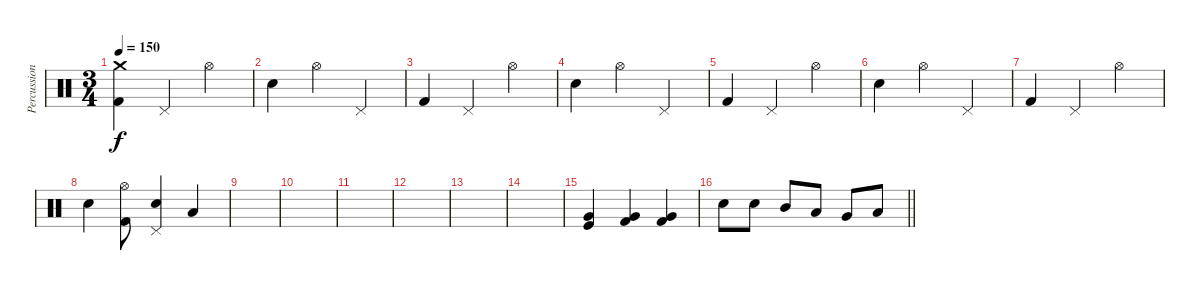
\track ("Percussion" "Percussion") {instrument percussion}
\staff {score}
\articulation defaults
\ts (3 4)
\tempo 150
\clef neutral
\ks c
("Kick (hit) 2" "Crash medium (hit)").4{dy f} "Pedal Hi-Hat (hit)".4 "Hi-Hat (open)".4 |
"Snare (hit) 2".4 "Hi-Hat (open)".4 "Pedal Hi-Hat (hit)".4 |
"Kick (hit) 2".4 "Pedal Hi-Hat (hit)".4 "Hi-Hat (open)".4 |
"Snare (hit) 2".4 "Hi-Hat (open)".4 "Pedal Hi-Hat (hit)".4 |
"Kick (hit) 2".4 "Pedal Hi-Hat (hit)".4 "Hi-Hat (open)".4 |
"Snare (hit) 2".4 "Hi-Hat (open)".4 "Pedal Hi-Hat (hit)".4 |
"Kick (hit) 2".4 "Pedal Hi-Hat (hit)".4 "Hi-Hat (open)".4 |
"Snare (hit) 2".4 ("Kick (hit) 2" "Hi-Hat (open)").8 ("Snare (hit) 2" "Pedal Hi-Hat (hit)").4 "Low Tom (hit)".4 |
|
|
|
|
|
|
("Very Low Tom (hit)" "Kick (hit)").4 ("Very Low Tom (hit)" "Kick (hit) 2").4 ("Very Low Tom (hit)" "Kick (hit) 2").4 |
\barLineRight lightlight "Snare (hit) 2".8 "Snare (hit) 2".8 "Mid Tom (hit)".8 "Low Tom (hit)".8 "Very Low Tom (hit)".8 "Low Floor Tom (hit)".8
